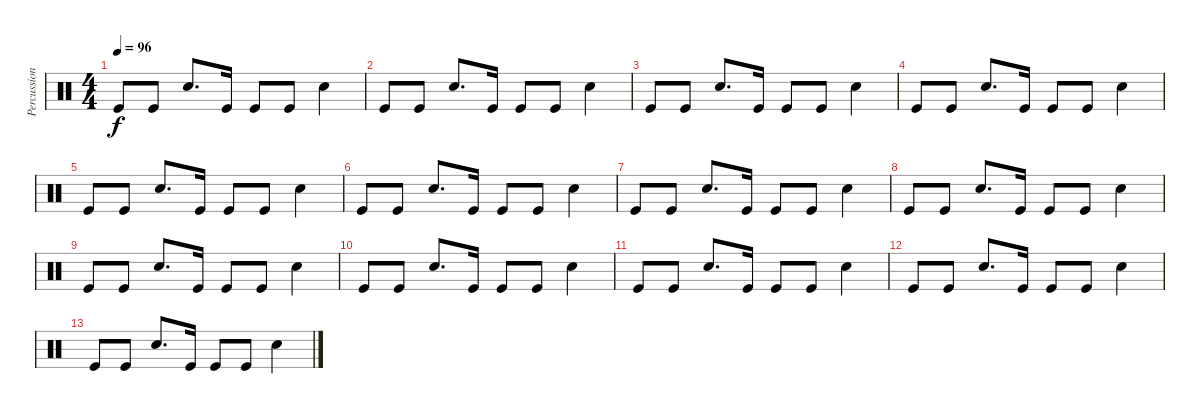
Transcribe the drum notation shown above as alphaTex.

\track ("Percussion" "Percussion") {instrument percussion}
\staff {score}
\articulation defaults
\ts (4 4)
\tempo 96
\clef neutral
\ks c "Kick (hit)".8{dy f} "Kick (hit)".8 "Electric Snare (hit)".8{d} "Kick (hit)".16 "Kick (hit)".8 "Kick (hit)".8 "Electric Snare (hit)".4
|
"Kick (hit)".8 "Kick (hit)".8 "Electric Snare (hit)".8{d} "Kick (hit)".16 "Kick (hit)".8 "Kick (hit)".8 "Electric Snare (hit)".4 |
"Kick (hit)".8 "Kick (hit)".8 "Electric Snare (hit)".8{d} "Kick (hit)".16 "Kick (hit)".8 "Kick (hit)".8 "Electric Snare (hit)".4 |
"Kick (hit)".8 "Kick (hit)".8 "Electric Snare (hit)".8{d} "Kick (hit)".16 "Kick (hit)".8 "Kick (hit)".8 "Electric Snare (hit)".4 |
"Kick (hit)".8 "Kick (hit)".8 "Electric Snare (hit)".8{d} "Kick (hit)".16 "Kick (hit)".8 "Kick (hit)".8 "Electric Snare (hit)".4 |
"Kick (hit)".8 "Kick (hit)".8 "Electric Snare (hit)".8{d} "Kick (hit)".16 "Kick (hit)".8 "Kick (hit)".8 "Electric Snare (hit)".4 |
"Kick (hit)".8 "Kick (hit)".8 "Electric Snare (hit)".8{d} "Kick (hit)".16 "Kick (hit)".8 "Kick (hit)".8 "Electric Snare (hit)".4 |
"Kick (hit)".8 "Kick (hit)".8 "Electric Snare (hit)".8{d} "Kick (hit)".16 "Kick (hit)".8 "Kick (hit)".8 "Electric Snare (hit)".4 |
"Kick (hit)".8 "Kick (hit)".8 "Electric Snare (hit)".8{d} "Kick (hit)".16 "Kick (hit)".8 "Kick (hit)".8 "Electric Snare (hit)".4 |
"Kick (hit)".8 "Kick (hit)".8 "Electric Snare (hit)".8{d} "Kick (hit)".16 "Kick (hit)".8 "Kick (hit)".8 "Electric Snare (hit)".4 |
"Kick (hit)".8 "Kick (hit)".8 "Electric Snare (hit)".8{d} "Kick (hit)".16 "Kick (hit)".8 "Kick (hit)".8 "Electric Snare (hit)".4 |
"Kick (hit)".8 "Kick (hit)".8 "Electric Snare (hit)".8{d} "Kick (hit)".16 "Kick (hit)".8 "Kick (hit)".8 "Electric Snare (hit)".4 |
"Kick (hit)".8 "Kick (hit)".8 "Electric Snare (hit)".8{d} "Kick (hit)".16 "Kick (hit)".8 "Kick (hit)".8 "Electric Snare (hit)".4
